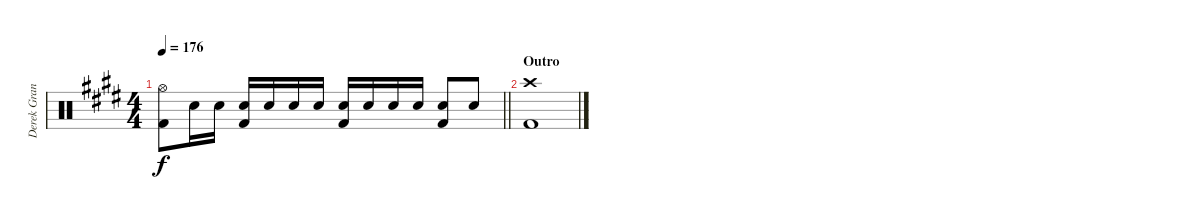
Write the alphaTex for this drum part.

\track ("Derek Grant - Drums" "Derek Gran") {instrument percussion}
\staff {score}
\articulation defaults
\ts (4 4)
\tempo 176
\clef neutral
\barLineRight lightlight
\ks e
("Kick (hit) 2" "Hi-Hat (open)").8{dy f} "Snare (hit) 2".16 "Snare (hit) 2".16 ("Snare (hit) 2" "Kick (hit) 2").16 "Snare (hit) 2".16 "Snare (hit) 2".16 "Snare (hit) 2".16 ("Snare (hit) 2" "Kick (hit) 2").16 "Snare (hit) 2".16 "Snare (hit) 2".16 "Snare (hit) 2".16 ("Snare (hit) 2" "Kick (hit) 2").8 "Snare (hit) 2".8 |
\section ("" "Outro")
("Crash high (hit)" "Kick (hit) 2").1
